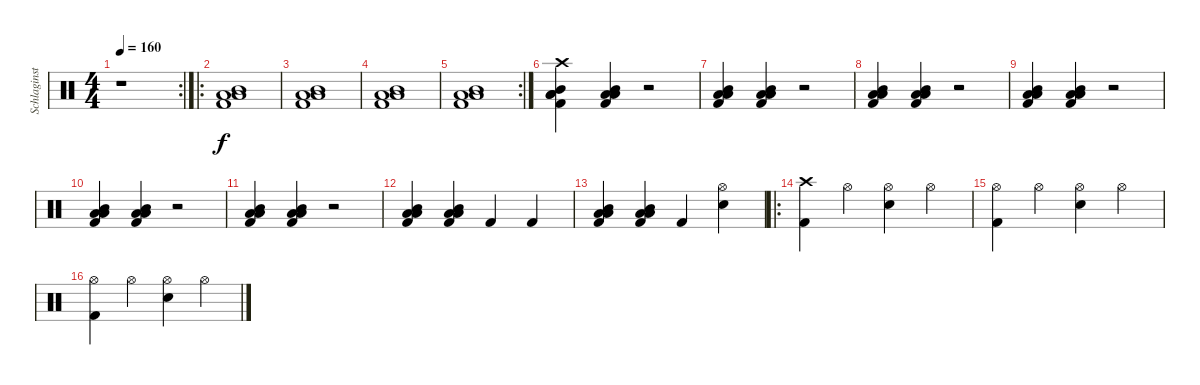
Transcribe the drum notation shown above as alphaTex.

\track ("Schlaginstrumente - Auswahl" "Schlaginst") {instrument percussion}
\staff {score}
\articulation defaults
\rc 2
\ts (4 4)
\tempo 160
\clef neutral
\ks c
r.1{dy f} |
\ro
("Kick (hit) 2" "Low Tom (hit)" "Mid Tom (hit)" "Low Floor Tom (hit)").1 |
("Low Tom (hit)" "Mid Tom (hit)" "Low Floor Tom (hit)" "Kick (hit) 2").1 |
("Low Tom (hit)" "Mid Tom (hit)" "Low Floor Tom (hit)" "Kick (hit) 2").1 |
\rc 2
("Low Tom (hit)" "Mid Tom (hit)" "Low Floor Tom (hit)" "Kick (hit) 2").1 |
("Kick (hit) 2" "Low Tom (hit)" "Mid Tom (hit)" "Low Floor Tom (hit)" "Crash high (hit)").4 ("Low Tom (hit)" "Mid Tom (hit)" "Low Floor Tom (hit)" "Kick (hit) 2").4 r.2 |
("Low Tom (hit)" "Mid Tom (hit)" "Low Floor Tom (hit)" "Kick (hit) 2").4 ("Low Tom (hit)" "Mid Tom (hit)" "Low Floor Tom (hit)" "Kick (hit) 2").4 r.2 |
("Low Tom (hit)" "Mid Tom (hit)" "Low Floor Tom (hit)" "Kick (hit) 2").4 ("Low Tom (hit)" "Mid Tom (hit)" "Low Floor Tom (hit)" "Kick (hit) 2").4 r.2 |
("Low Tom (hit)" "Mid Tom (hit)" "Low Floor Tom (hit)" "Kick (hit) 2").4 ("Low Tom (hit)" "Mid Tom (hit)" "Low Floor Tom (hit)" "Kick (hit) 2").4 r.2 |
("Low Tom (hit)" "Mid Tom (hit)" "Low Floor Tom (hit)" "Kick (hit) 2").4 ("Low Tom (hit)" "Mid Tom (hit)" "Low Floor Tom (hit)" "Kick (hit) 2").4 r.2 |
("Low Tom (hit)" "Mid Tom (hit)" "Low Floor Tom (hit)" "Kick (hit) 2").4 ("Low Tom (hit)" "Mid Tom (hit)" "Low Floor Tom (hit)" "Kick (hit) 2").4 r.2 |
("Low Tom (hit)" "Mid Tom (hit)" "Low Floor Tom (hit)" "Kick (hit) 2").4 ("Low Tom (hit)" "Mid Tom (hit)" "Low Floor Tom (hit)" "Kick (hit) 2").4 "Kick (hit) 2".4 "Kick (hit) 2".4 |
("Low Tom (hit)" "Mid Tom (hit)" "Low Floor Tom (hit)" "Kick (hit) 2").4 ("Low Tom (hit)" "Mid Tom (hit)" "Low Floor Tom (hit)" "Kick (hit) 2").4 "Kick (hit) 2".4 ("Electric Snare (hit)" "Hi-Hat (open)").4 |
\ro
("Crash high (hit)" "Kick (hit) 2").4 "Hi-Hat (open)".4 ("Hi-Hat (open)" "Electric Snare (hit)").4 "Hi-Hat (open)".4 |
("Hi-Hat (open)" "Kick (hit) 2").4 "Hi-Hat (open)".4 ("Hi-Hat (open)" "Electric Snare (hit)").4 "Hi-Hat (open)".4 |
("Hi-Hat (open)" "Kick (hit) 2").4 "Hi-Hat (open)".4 ("Hi-Hat (open)" "Electric Snare (hit)").4 "Hi-Hat (open)".4
